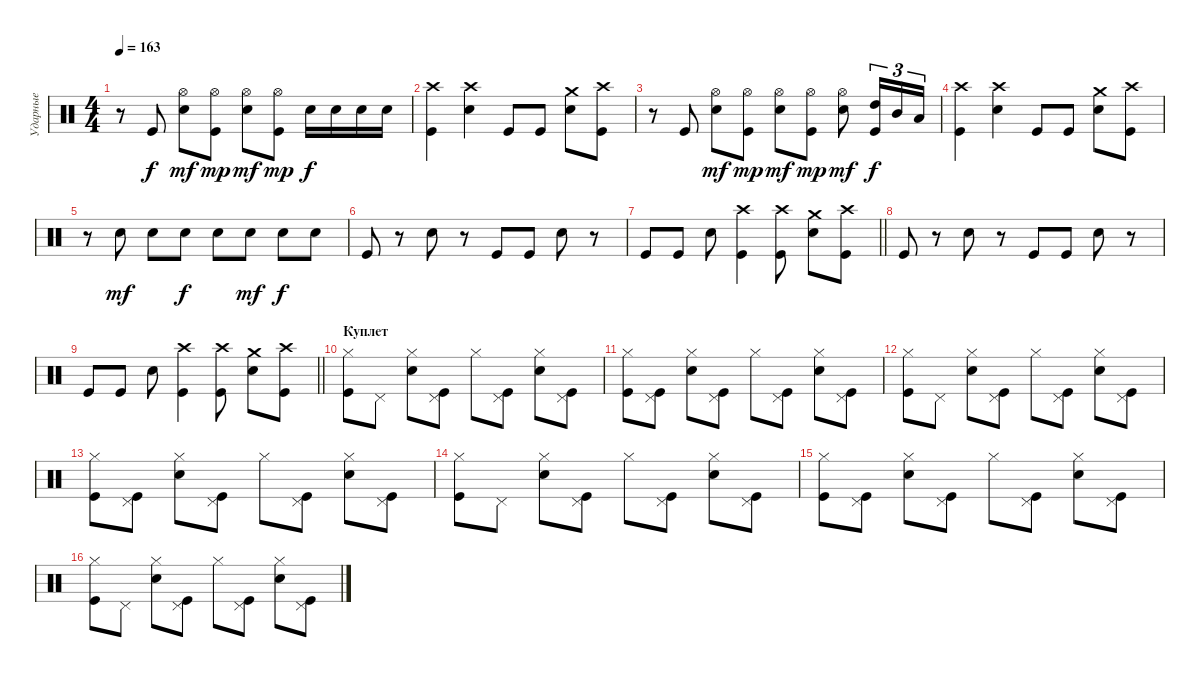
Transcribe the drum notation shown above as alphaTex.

\track ("Ударные" "Ударные") {instrument percussion}
\staff
\articulation defaults
\ts (4 4)
\tempo 163
\clef neutral
\ks c
r.8{dy f} "Kick (hit)".8 ("Hi-Hat (open)" "Snare (hit) 2").8{dy mf} ("Hi-Hat (open)" "Kick (hit)").8{dy mp} ("Hi-Hat (open)" "Snare (hit) 2").8{dy mf} ("Hi-Hat (open)" "Kick (hit)").8{dy mp} "Snare (hit) 2".16{dy f} "Snare (hit) 2".16 "Snare (hit) 2".16 "Snare (hit) 2".16 |
("Crash high (hit)" "Kick (hit)").4 ("Crash high (hit)" "Snare (hit) 2").4 "Kick (hit)".8 "Kick (hit)".8 ("Crash medium (hit)" "Snare (hit) 2").8 ("Crash high (hit)" "Kick (hit)").8 |
r.8 "Kick (hit)".8 ("Hi-Hat (open)" "Snare (hit) 2").8{dy mf} ("Hi-Hat (open)" "Kick (hit)").8{dy mp} ("Hi-Hat (open)" "Snare (hit) 2").8{dy mf} ("Hi-Hat (open)" "Kick (hit)").8{dy mp} ("Hi-Hat (open)" "Snare (hit) 2").8{dy mf} ("High Tom (hit)" "Kick (hit)").16{tu (3 2) dy f} "Mid Tom (hit)".16{tu (3 2)} "Low Tom (hit)".16{tu (3 2)} |
("Crash high (hit)" "Kick (hit)").4 ("Crash high (hit)" "Snare (hit) 2").4 "Kick (hit)".8 "Kick (hit)".8 ("Crash medium (hit)" "Snare (hit) 2").8 ("Crash high (hit)" "Kick (hit)").8 |
r.8 "Snare (hit) 2".8{dy mf} "Snare (hit) 2".8 "Snare (hit) 2".8{dy f} "Snare (hit) 2".8 "Snare (hit) 2".8{dy mf} "Snare (hit) 2".8{dy f} "Snare (hit) 2".8 |
"Kick (hit)".8 r.8 "Snare (hit) 2".8 r.8 "Kick (hit)".8 "Kick (hit)".8 "Snare (hit) 2".8 r.8 |
\barLineRight lightlight "Kick (hit)".8 "Kick (hit)".8 "Snare (hit) 2".8
("Crash high (hit)" "Kick (hit)").4 ("Crash high (hit)" "Kick (hit)").8 ("Crash medium (hit)" "Snare (hit) 2").8 ("Crash high (hit)" "Kick (hit)").8 |
"Kick (hit)".8 r.8 "Snare (hit) 2".8 r.8 "Kick (hit)".8 "Kick (hit)".8 "Snare (hit) 2".8 r.8 |
\barLineRight lightlight "Kick (hit)".8 "Kick (hit)".8 "Snare (hit) 2".8
("Crash high (hit)" "Kick (hit)").4 ("Crash high (hit)" "Kick (hit)").8 ("Crash medium (hit)" "Snare (hit) 2").8 ("Crash high (hit)" "Kick (hit)").8 |
\section ("" "Куплет")
("Hi-Hat (closed)" "Kick (hit)").8 "Pedal Hi-Hat (hit)".8 ("Hi-Hat (closed)" "Snare (hit) 2").8 ("Pedal Hi-Hat (hit)" "Kick (hit)").8 "Hi-Hat (closed)".8 ("Pedal Hi-Hat (hit)" "Kick (hit)").8 ("Hi-Hat (closed)" "Snare (hit) 2").8 ("Pedal Hi-Hat (hit)" "Kick (hit)").8 |
("Hi-Hat (closed)" "Kick (hit)").8 ("Pedal Hi-Hat (hit)" "Kick (hit)").8 ("Hi-Hat (closed)" "Snare (hit) 2").8 ("Pedal Hi-Hat (hit)" "Kick (hit)").8 "Hi-Hat (closed)".8 ("Pedal Hi-Hat (hit)" "Kick (hit)").8 ("Hi-Hat (closed)" "Snare (hit) 2").8 ("Pedal Hi-Hat (hit)" "Kick (hit)").8 |
("Hi-Hat (closed)" "Kick (hit)").8 "Pedal Hi-Hat (hit)".8 ("Hi-Hat (closed)" "Snare (hit) 2").8 ("Pedal Hi-Hat (hit)" "Kick (hit)").8 "Hi-Hat (closed)".8 ("Pedal Hi-Hat (hit)" "Kick (hit)").8 ("Hi-Hat (closed)" "Snare (hit) 2").8 ("Pedal Hi-Hat (hit)" "Kick (hit)").8 |
("Hi-Hat (closed)" "Kick (hit)").8 ("Pedal Hi-Hat (hit)" "Kick (hit)").8 ("Hi-Hat (closed)" "Snare (hit) 2").8 ("Pedal Hi-Hat (hit)" "Kick (hit)").8 "Hi-Hat (closed)".8 ("Pedal Hi-Hat (hit)" "Kick (hit)").8 ("Hi-Hat (closed)" "Snare (hit) 2").8 ("Pedal Hi-Hat (hit)" "Kick (hit)").8 |
("Hi-Hat (closed)" "Kick (hit)").8 "Pedal Hi-Hat (hit)".8 ("Hi-Hat (closed)" "Snare (hit) 2").8 ("Pedal Hi-Hat (hit)" "Kick (hit)").8 "Hi-Hat (closed)".8 ("Pedal Hi-Hat (hit)" "Kick (hit)").8 ("Hi-Hat (closed)" "Snare (hit) 2").8 ("Pedal Hi-Hat (hit)" "Kick (hit)").8 |
("Hi-Hat (closed)" "Kick (hit)").8 ("Pedal Hi-Hat (hit)" "Kick (hit)").8 ("Hi-Hat (closed)" "Snare (hit) 2").8 ("Pedal Hi-Hat (hit)" "Kick (hit)").8 "Hi-Hat (closed)".8 ("Pedal Hi-Hat (hit)" "Kick (hit)").8 ("Hi-Hat (closed)" "Snare (hit) 2").8 ("Pedal Hi-Hat (hit)" "Kick (hit)").8 |
("Hi-Hat (closed)" "Kick (hit)").8 "Pedal Hi-Hat (hit)".8 ("Hi-Hat (closed)" "Snare (hit) 2").8 ("Pedal Hi-Hat (hit)" "Kick (hit)").8 "Hi-Hat (closed)".8 ("Pedal Hi-Hat (hit)" "Kick (hit)").8 ("Hi-Hat (closed)" "Snare (hit) 2").8 ("Pedal Hi-Hat (hit)" "Kick (hit)").8
